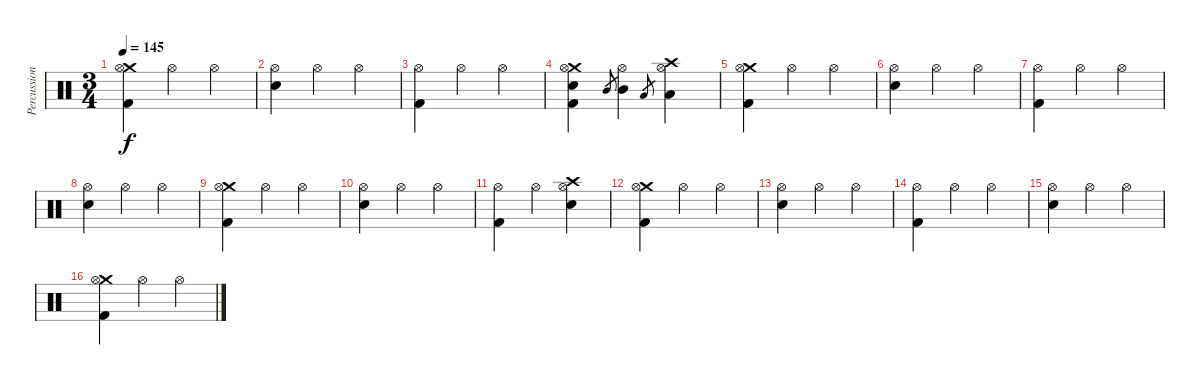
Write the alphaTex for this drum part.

\track ("Percussion" "Percussion") {instrument percussion}
\staff {score}
\articulation defaults
\ts (3 4)
\tempo 145
\clef neutral
\ks c
("Crash medium (hit)" "Hi-Hat (open)" "Kick (hit) 2").4{dy f} "Hi-Hat (open)".4 "Hi-Hat (open)".4 |
("Hi-Hat (open)" "Electric Snare (hit)").4 "Hi-Hat (open)".4 "Hi-Hat (open)".4 |
("Hi-Hat (open)" "Kick (hit) 2").4 "Hi-Hat (open)".4 "Hi-Hat (open)".4 |
("Crash medium (hit)" "Hi-Hat (open)" "Electric Snare (hit)" "Kick (hit) 2").4 "Mid Tom (hit)".8{gr} ("Hi-Hat (open)" "Mid Tom (hit)").4 "Low Tom (hit)".8{gr} ("Crash high (hit)" "Hi-Hat (open)" "Low Tom (hit)").4 |
("Crash medium (hit)" "Hi-Hat (open)" "Kick (hit) 2").4{volume 12} "Hi-Hat (open)".4 "Hi-Hat (open)".4 |
("Hi-Hat (open)" "Electric Snare (hit)").4 "Hi-Hat (open)".4 "Hi-Hat (open)".4 |
("Hi-Hat (open)" "Kick (hit) 2").4{volume 11} "Hi-Hat (open)".4 "Hi-Hat (open)".4 |
("Hi-Hat (open)" "Electric Snare (hit)").4 "Hi-Hat (open)".4 "Hi-Hat (open)".4 |
("Crash medium (hit)" "Hi-Hat (open)" "Kick (hit) 2").4{volume 10} "Hi-Hat (open)".4 "Hi-Hat (open)".4 |
("Hi-Hat (open)" "Electric Snare (hit)").4 "Hi-Hat (open)".4 "Hi-Hat (open)".4 |
("Hi-Hat (open)" "Kick (hit) 2").4{volume 9} "Hi-Hat (open)".4 ("Crash high (hit)" "Hi-Hat (open)" "Electric Snare (hit)").4 |
("Crash medium (hit)" "Hi-Hat (open)" "Kick (hit) 2").4 "Hi-Hat (open)".4 "Hi-Hat (open)".4 |
("Hi-Hat (open)" "Electric Snare (hit)").4{volume 8} "Hi-Hat (open)".4 "Hi-Hat (open)".4 |
("Hi-Hat (open)" "Kick (hit) 2").4 "Hi-Hat (open)".4 "Hi-Hat (open)".4 |
("Hi-Hat (open)" "Electric Snare (hit)").4{volume 7} "Hi-Hat (open)".4 "Hi-Hat (open)".4 |
("Crash medium (hit)" "Hi-Hat (open)" "Kick (hit) 2").4 "Hi-Hat (open)".4 "Hi-Hat (open)".4
